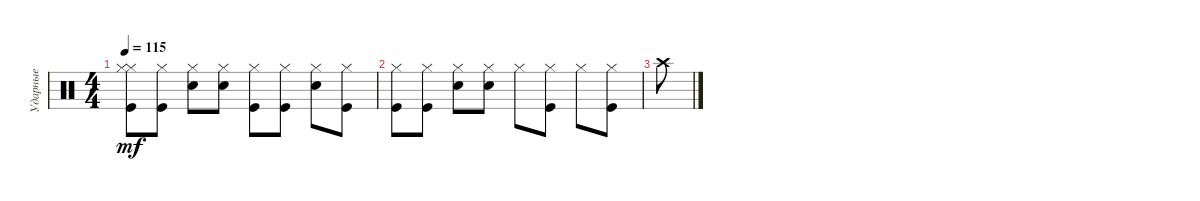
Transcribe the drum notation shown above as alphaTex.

\track ("Ударные" "Ударные") {instrument percussion}
\staff {score}
\articulation defaults
\ts (4 4)
\tempo 115
\clef neutral
\ks c
("Hi-Hat (closed)" "Kick (hit)" "Hi-Hat (closed)").8{dy mf} ("Hi-Hat (closed)" "Kick (hit)").8 ("Snare (hit) 2" "Hi-Hat (closed)").8 ("Snare (hit) 2" "Hi-Hat (closed)").8 ("Hi-Hat (closed)" "Kick (hit)").8 ("Hi-Hat (closed)" "Kick (hit)").8 ("Hi-Hat (closed)" "Snare (hit) 2").8 ("Hi-Hat (closed)" "Kick (hit)").8 |
("Hi-Hat (closed)" "Kick (hit)").8 ("Hi-Hat (closed)" "Kick (hit)").8 ("Snare (hit) 2" "Hi-Hat (closed)").8 ("Snare (hit) 2" "Hi-Hat (closed)").8 "Hi-Hat (closed)".8 ("Hi-Hat (closed)" "Kick (hit)").8 "Hi-Hat (closed)".8 ("Hi-Hat (closed)" "Kick (hit)").8 |
"Crash high (hit)".8
